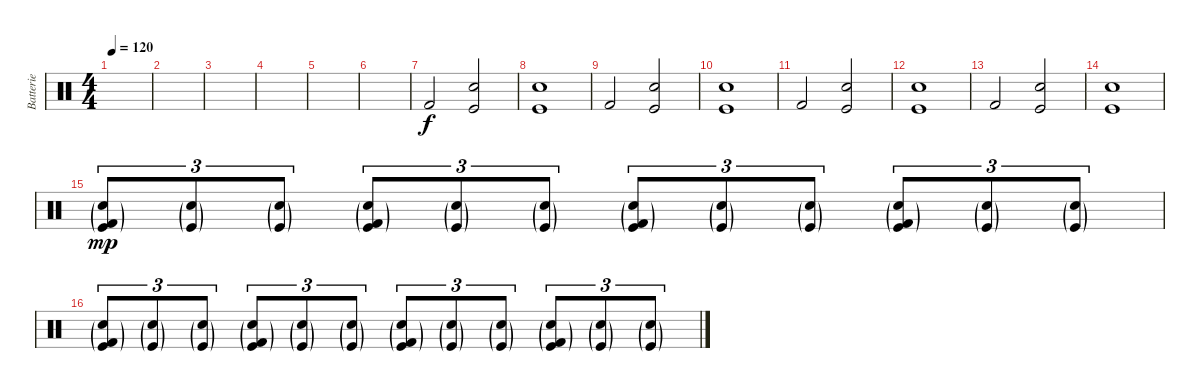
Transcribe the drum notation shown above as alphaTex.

\track ("Batterie" "Batterie") {instrument percussion}
\staff {score}
\articulation defaults
\ts (4 4)
\tempo 120
\clef neutral
\ks c
|
|
|
|
|
|
"Kick (hit) 2".2 ("Snare (hit) 2" "Kick (hit)").2 |
("Snare (hit) 2" "Kick (hit)").1 |
"Kick (hit) 2".2 ("Snare (hit) 2" "Kick (hit)").2 |
("Snare (hit) 2" "Kick (hit)").1 |
"Kick (hit) 2".2 ("Snare (hit) 2" "Kick (hit)").2 |
("Snare (hit) 2" "Kick (hit)").1 |
"Kick (hit) 2".2 ("Snare (hit) 2" "Kick (hit)").2 |
("Snare (hit) 2" "Kick (hit)").1 |
("Snare (hit) 2"{g} "Kick (hit)"{g} "Kick (hit) 2"{g}).8{tu (3 2) dy mp} ("Snare (hit) 2"{g} "Kick (hit)"{g}).8{tu (3 2)} ("Snare (hit) 2"{g} "Kick (hit)"{g}).8{tu (3 2)} ("Snare (hit) 2"{g} "Kick (hit)"{g} "Kick (hit) 2"{g}).8{tu (3 2)} ("Snare (hit) 2"{g} "Kick (hit)"{g}).8{tu (3 2)} ("Snare (hit) 2"{g} "Kick (hit)"{g}).8{tu (3 2)} ("Snare (hit) 2"{g} "Kick (hit)"{g} "Kick (hit) 2"{g}).8{tu (3 2)} ("Snare (hit) 2"{g} "Kick (hit)"{g}).8{tu (3 2)} ("Snare (hit) 2"{g} "Kick (hit)"{g}).8{tu (3 2)} ("Snare (hit) 2"{g} "Kick (hit)"{g} "Kick (hit) 2"{g}).8{tu (3 2)} ("Snare (hit) 2"{g} "Kick (hit)"{g}).8{tu (3 2)} ("Snare (hit) 2"{g} "Kick (hit)"{g}).8{tu (3 2)} |
("Snare (hit) 2"{g} "Kick (hit)"{g} "Kick (hit) 2"{g}).8{tu (3 2)} ("Snare (hit) 2"{g} "Kick (hit)"{g}).8{tu (3 2)} ("Snare (hit) 2"{g} "Kick (hit)"{g}).8{tu (3 2)} ("Snare (hit) 2"{g} "Kick (hit)"{g} "Kick (hit) 2"{g}).8{tu (3 2)} ("Snare (hit) 2"{g} "Kick (hit)"{g}).8{tu (3 2)} ("Snare (hit) 2"{g} "Kick (hit)"{g}).8{tu (3 2)} ("Snare (hit) 2"{g} "Kick (hit)"{g} "Kick (hit) 2"{g}).8{tu (3 2)} ("Snare (hit) 2"{g} "Kick (hit)"{g}).8{tu (3 2)} ("Snare (hit) 2"{g} "Kick (hit)"{g}).8{tu (3 2)} ("Snare (hit) 2"{g} "Kick (hit)"{g} "Kick (hit) 2"{g}).8{tu (3 2)} ("Snare (hit) 2"{g} "Kick (hit)"{g}).8{tu (3 2)} ("Snare (hit) 2"{g} "Kick (hit)"{g}).8{tu (3 2)}
